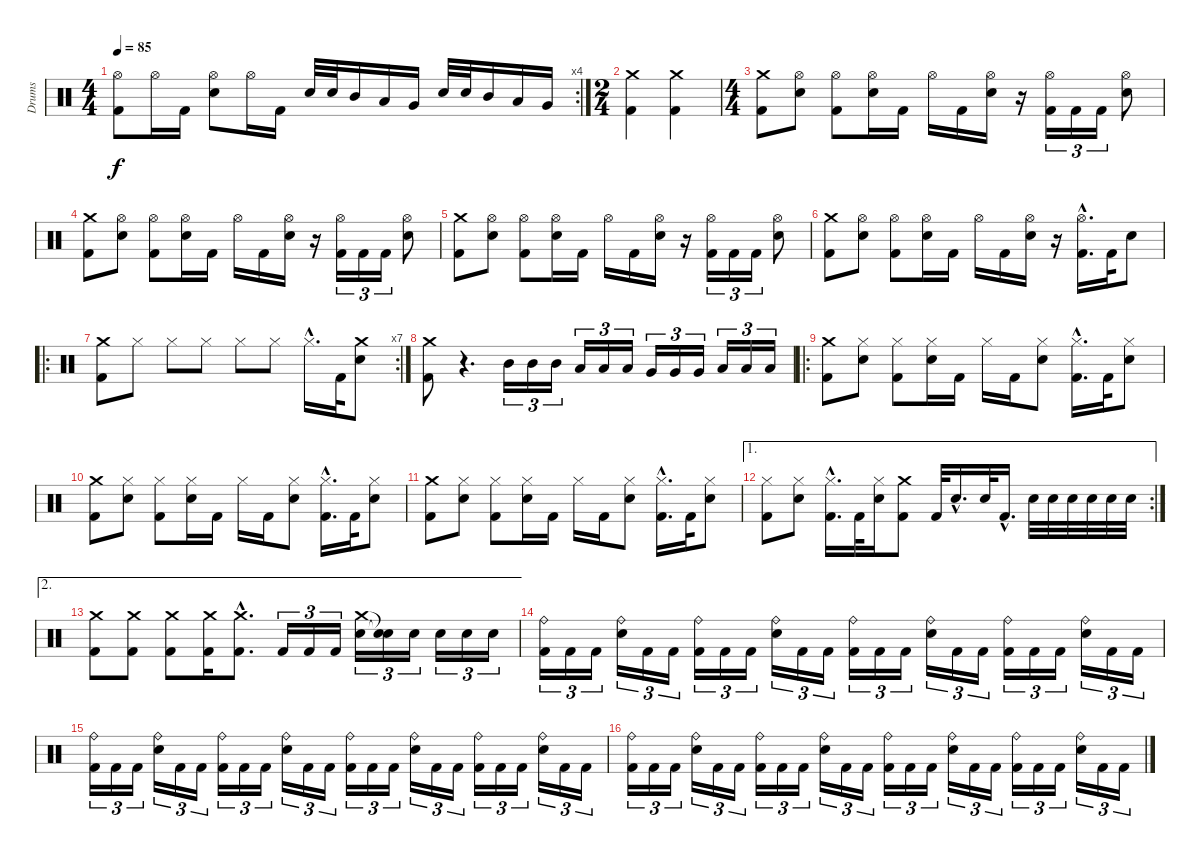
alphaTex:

\track ("Drums" "Drums") {instrument percussion}
\staff {score}
\articulation defaults
\rc 4
\ts (4 4)
\tempo 85
\clef neutral
\ks c
("Hi-Hat (open)" "Kick (hit) 2").8{dy f} "Hi-Hat (open)".16 "Kick (hit) 2".16 ("Hi-Hat (open)" "Snare (hit) 2").8 "Hi-Hat (open)".16 "Kick (hit) 2".16 "Snare (hit) 2".32 "Snare (hit) 2".32 "Mid Tom (hit)".16 "Low Tom (hit)".16 "Very Low Tom (hit)".16 "Snare (hit) 2".32 "Snare (hit) 2".32 "Mid Tom (hit)".16 "Low Tom (hit)".16 "Very Low Tom (hit)".16 |
\ts (2 4)
("Crash medium (hit)" "Kick (hit) 2").4 ("Crash medium (hit)" "Kick (hit) 2").4 |
\ts (4 4)
("Crash medium (hit)" "Kick (hit) 2").8 ("Hi-Hat (open)" "Snare (hit) 2").8 ("Hi-Hat (open)" "Kick (hit) 2").8 ("Hi-Hat (open)" "Snare (hit) 2").16 "Kick (hit) 2".16 "Hi-Hat (open)".16 "Kick (hit) 2".16 ("Hi-Hat (open)" "Snare (hit) 2").16 r.16 ("Hi-Hat (open)" "Kick (hit) 2").16{tu (3 2)} "Kick (hit) 2".16{tu (3 2)} "Kick (hit) 2".16{tu (3 2)} ("Hi-Hat (open)" "Snare (hit) 2").8 |
("Crash medium (hit)" "Kick (hit) 2").8 ("Hi-Hat (open)" "Snare (hit) 2").8 ("Hi-Hat (open)" "Kick (hit) 2").8 ("Hi-Hat (open)" "Snare (hit) 2").16 "Kick (hit) 2".16 "Hi-Hat (open)".16 "Kick (hit) 2".16 ("Hi-Hat (open)" "Snare (hit) 2").16 r.16 ("Hi-Hat (open)" "Kick (hit) 2").16{tu (3 2)} "Kick (hit) 2".16{tu (3 2)} "Kick (hit) 2".16{tu (3 2)} ("Hi-Hat (open)" "Snare (hit) 2").8 |
("Crash medium (hit)" "Kick (hit) 2").8 ("Hi-Hat (open)" "Snare (hit) 2").8 ("Hi-Hat (open)" "Kick (hit) 2").8 ("Hi-Hat (open)" "Snare (hit) 2").16 "Kick (hit) 2".16 "Hi-Hat (open)".16 "Kick (hit) 2".16 ("Hi-Hat (open)" "Snare (hit) 2").16 r.16 ("Hi-Hat (open)" "Kick (hit) 2").16{tu (3 2)} "Kick (hit) 2".16{tu (3 2)} "Kick (hit) 2".16{tu (3 2)} ("Hi-Hat (open)" "Snare (hit) 2").8 |
("Crash medium (hit)" "Kick (hit) 2").8 ("Hi-Hat (open)" "Snare (hit) 2").8 ("Hi-Hat (open)" "Kick (hit) 2").8 ("Hi-Hat (open)" "Snare (hit) 2").16 "Kick (hit) 2".16 "Hi-Hat (open)".16 "Kick (hit) 2".16 ("Hi-Hat (open)" "Snare (hit) 2").16 r.16 ("Hi-Hat (open)"{hac} "Kick (hit) 2"{hac}).16{d} "Kick (hit) 2".32 "Snare (hit) 2".8 |
\ro
\rc 7
("Crash medium (hit)" "Kick (hit) 2").8 "Hi-Hat (closed)".8 "Hi-Hat (closed)".8 "Hi-Hat (closed)".8 "Hi-Hat (closed)".8 "Hi-Hat (closed)".8 "Hi-Hat (closed)"{hac}.16{d} "Kick (hit) 2".32 ("Crash medium (hit)" "Snare (hit) 2").8 |
("Crash medium (hit)" "Kick (hit) 2").8 r.4{d} "Mid Tom (hit)".16{tu (3 2)} "Mid Tom (hit)".16{tu (3 2)} "Mid Tom (hit)".16{tu (3 2)} "Low Tom (hit)".16{tu (3 2)} "Low Tom (hit)".16{tu (3 2)} "Low Tom (hit)".16{tu (3 2)} "Very Low Tom (hit)".16{tu (3 2)} "Very Low Tom (hit)".16{tu (3 2)} "Very Low Tom (hit)".16{tu (3 2)} "Low Floor Tom (hit)".16{tu (3 2)} "Low Floor Tom (hit)".16{tu (3 2)} "Low Floor Tom (hit)".16{tu (3 2)} |
\ro
("Crash medium (hit)" "Kick (hit) 2").8 ("Hi-Hat (closed)" "Snare (hit) 2").8 ("Hi-Hat (closed)" "Kick (hit) 2").8 ("Hi-Hat (closed)" "Snare (hit) 2").16 "Kick (hit) 2".16 "Hi-Hat (closed)".16 "Kick (hit) 2".16 ("Hi-Hat (closed)" "Snare (hit) 2").8 ("Hi-Hat (closed)"{hac} "Kick (hit) 2"{hac}).16{d} "Kick (hit) 2".32 ("Hi-Hat (closed)" "Snare (hit) 2").8 |
("Crash medium (hit)" "Kick (hit) 2").8 ("Hi-Hat (closed)" "Snare (hit) 2").8 ("Hi-Hat (closed)" "Kick (hit) 2").8 ("Hi-Hat (closed)" "Snare (hit) 2").16 "Kick (hit) 2".16 "Hi-Hat (closed)".16 "Kick (hit) 2".16 ("Hi-Hat (closed)" "Snare (hit) 2").8 ("Hi-Hat (closed)"{hac} "Kick (hit) 2"{hac}).16{d} "Kick (hit) 2".32 ("Hi-Hat (closed)" "Snare (hit) 2").8 |
("Crash medium (hit)" "Kick (hit) 2").8 ("Hi-Hat (closed)" "Snare (hit) 2").8 ("Hi-Hat (closed)" "Kick (hit) 2").8 ("Hi-Hat (closed)" "Snare (hit) 2").16 "Kick (hit) 2".16 "Hi-Hat (closed)".16 "Kick (hit) 2".16 ("Hi-Hat (closed)" "Snare (hit) 2").8 ("Hi-Hat (closed)"{hac} "Kick (hit) 2"{hac}).16{d} "Kick (hit) 2".32 ("Hi-Hat (closed)" "Snare (hit) 2").8 |
\ae 1
\rc 2
("Hi-Hat (closed)" "Kick (hit) 2").8 ("Hi-Hat (closed)" "Snare (hit) 2").8 ("Hi-Hat (closed)"{hac} "Kick (hit) 2"{hac}).16{d} "Kick (hit) 2".32 ("Hi-Hat (closed)" "Snare (hit) 2").16 ("Crash medium (hit)" "Kick (hit) 2").8 "Kick (hit) 2".32 "Snare (hit) 2"{hac}.16{d} "Snare (hit) 2".32 "Kick (hit) 2"{hac}.16{d} "Snare (hit) 2".32 "Snare (hit) 2".32 "Snare (hit) 2".32 "Snare (hit) 2".32 "Snare (hit) 2".32 "Snare (hit) 2".32 |
\ae 2
("Crash medium (hit)" "Kick (hit) 2").8 ("Crash medium (hit)" "Kick (hit) 2").8 ("Crash medium (hit)" "Kick (hit) 2").8 ("Crash medium (hit)" "Kick (hit) 2").16 ("Crash medium (hit)"{hac} "Kick (hit) 2"{hac}).8{d} "Kick (hit) 2".16{tu (3 2)} "Kick (hit) 2".16{tu (3 2)} "Kick (hit) 2".16{tu (3 2)} ("Crash medium (hit)" "Snare (hit) 2").16{tu (3 2)} ("Snare (hit)"{t} "Snare (hit)"{t}).16{tu (3 2)} "Snare (hit) 2".16{tu (3 2)} "Snare (hit) 2".16{tu (3 2)} "Snare (hit) 2".16{tu (3 2)} "Snare (hit) 2".16{tu (3 2)} |
("Ride (bell)" "Kick (hit) 2").16{tu (3 2)} "Kick (hit) 2".16{tu (3 2)} "Kick (hit) 2".16{tu (3 2)} ("Ride (bell)" "Snare (hit) 2").16{tu (3 2)} "Kick (hit) 2".16{tu (3 2)} "Kick (hit) 2".16{tu (3 2)} ("Ride (bell)" "Kick (hit) 2").16{tu (3 2)} "Kick (hit) 2".16{tu (3 2)} "Kick (hit) 2".16{tu (3 2)} ("Ride (bell)" "Snare (hit) 2").16{tu (3 2)} "Kick (hit) 2".16{tu (3 2)} "Kick (hit) 2".16{tu (3 2)} ("Ride (bell)" "Kick (hit) 2").16{tu (3 2)} "Kick (hit) 2".16{tu (3 2)} "Kick (hit) 2".16{tu (3 2)} ("Ride (bell)" "Snare (hit) 2").16{tu (3 2)} "Kick (hit) 2".16{tu (3 2)} "Kick (hit) 2".16{tu (3 2)} ("Ride (bell)" "Kick (hit) 2").16{tu (3 2)} "Kick (hit) 2".16{tu (3 2)} "Kick (hit) 2".16{tu (3 2)} ("Ride (bell)" "Snare (hit) 2").16{tu (3 2)} "Kick (hit) 2".16{tu (3 2)} "Kick (hit) 2".16{tu (3 2)} |
("Ride (bell)" "Kick (hit) 2").16{tu (3 2)} "Kick (hit) 2".16{tu (3 2)} "Kick (hit) 2".16{tu (3 2)} ("Ride (bell)" "Snare (hit) 2").16{tu (3 2)} "Kick (hit) 2".16{tu (3 2)} "Kick (hit) 2".16{tu (3 2)} ("Ride (bell)" "Kick (hit) 2").16{tu (3 2)} "Kick (hit) 2".16{tu (3 2)} "Kick (hit) 2".16{tu (3 2)} ("Ride (bell)" "Snare (hit) 2").16{tu (3 2)} "Kick (hit) 2".16{tu (3 2)} "Kick (hit) 2".16{tu (3 2)} ("Ride (bell)" "Kick (hit) 2").16{tu (3 2)} "Kick (hit) 2".16{tu (3 2)} "Kick (hit) 2".16{tu (3 2)} ("Ride (bell)" "Snare (hit) 2").16{tu (3 2)} "Kick (hit) 2".16{tu (3 2)} "Kick (hit) 2".16{tu (3 2)} ("Ride (bell)" "Kick (hit) 2").16{tu (3 2)} "Kick (hit) 2".16{tu (3 2)} "Kick (hit) 2".16{tu (3 2)} ("Ride (bell)" "Snare (hit) 2").16{tu (3 2)} "Kick (hit) 2".16{tu (3 2)} "Kick (hit) 2".16{tu (3 2)} |
("Ride (bell)" "Kick (hit) 2").16{tu (3 2)} "Kick (hit) 2".16{tu (3 2)} "Kick (hit) 2".16{tu (3 2)} ("Ride (bell)" "Snare (hit) 2").16{tu (3 2)} "Kick (hit) 2".16{tu (3 2)} "Kick (hit) 2".16{tu (3 2)} ("Ride (bell)" "Kick (hit) 2").16{tu (3 2)} "Kick (hit) 2".16{tu (3 2)} "Kick (hit) 2".16{tu (3 2)} ("Ride (bell)" "Snare (hit) 2").16{tu (3 2)} "Kick (hit) 2".16{tu (3 2)} "Kick (hit) 2".16{tu (3 2)} ("Ride (bell)" "Kick (hit) 2").16{tu (3 2)} "Kick (hit) 2".16{tu (3 2)} "Kick (hit) 2".16{tu (3 2)} ("Ride (bell)" "Snare (hit) 2").16{tu (3 2)} "Kick (hit) 2".16{tu (3 2)} "Kick (hit) 2".16{tu (3 2)} ("Ride (bell)" "Kick (hit) 2").16{tu (3 2)} "Kick (hit) 2".16{tu (3 2)} "Kick (hit) 2".16{tu (3 2)} ("Ride (bell)" "Snare (hit) 2").16{tu (3 2)} "Kick (hit) 2".16{tu (3 2)} "Kick (hit) 2".16{tu (3 2)}
